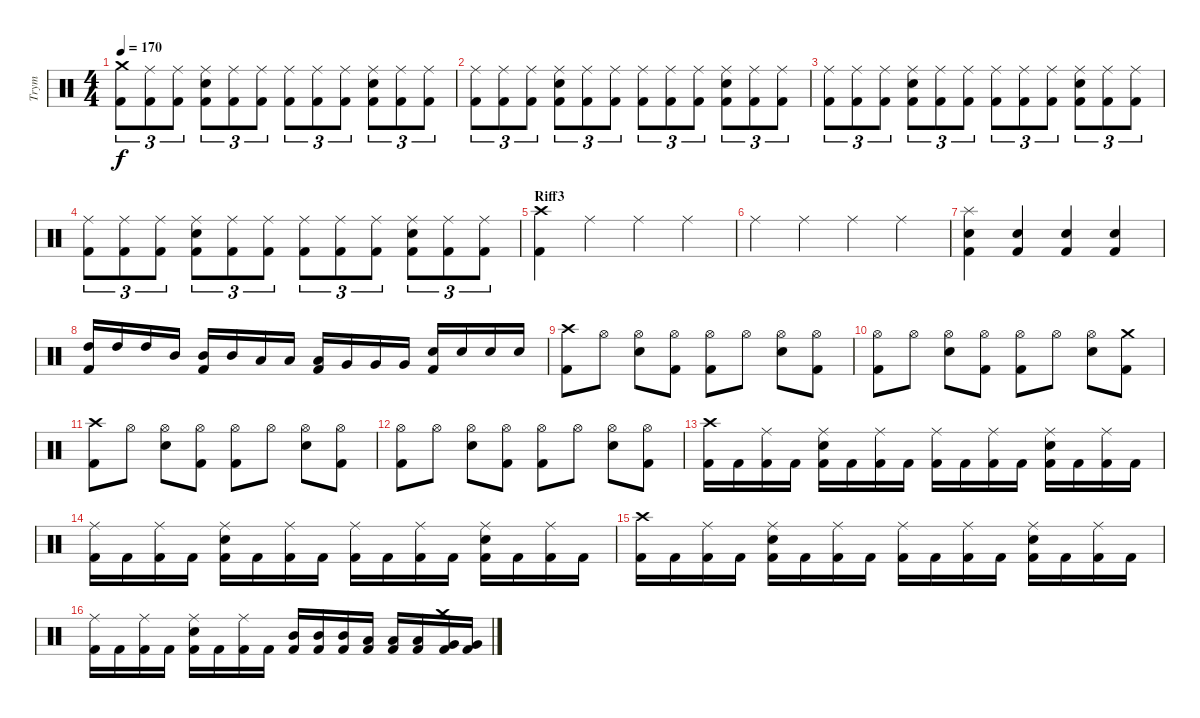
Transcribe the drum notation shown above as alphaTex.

\track ("Trym" "Trym") {instrument percussion}
\staff {score}
\articulation defaults
\ts (4 4)
\tempo 170
\clef neutral
\ks c
("Kick (hit) 2" "Crash medium (hit)").8{tu (3 2) dy f} ("Kick (hit) 2" "Ride (middle)").8{tu (3 2)} ("Kick (hit) 2" "Ride (middle)").8{tu (3 2)} ("Kick (hit) 2" "Electric Snare (hit)" "Ride (middle)").8{tu (3 2)} ("Kick (hit) 2" "Ride (middle)").8{tu (3 2)} ("Kick (hit) 2" "Ride (middle)").8{tu (3 2)} ("Kick (hit) 2" "Ride (middle)").8{tu (3 2)} ("Kick (hit) 2" "Ride (middle)").8{tu (3 2)} ("Kick (hit) 2" "Ride (middle)").8{tu (3 2)} ("Kick (hit) 2" "Electric Snare (hit)" "Ride (middle)").8{tu (3 2)} ("Kick (hit) 2" "Ride (middle)").8{tu (3 2)} ("Kick (hit) 2" "Ride (middle)").8{tu (3 2)} |
("Kick (hit) 2" "Ride (middle)").8{tu (3 2)} ("Kick (hit) 2" "Ride (middle)").8{tu (3 2)} ("Kick (hit) 2" "Ride (middle)").8{tu (3 2)} ("Kick (hit) 2" "Electric Snare (hit)" "Ride (middle)").8{tu (3 2)} ("Kick (hit) 2" "Ride (middle)").8{tu (3 2)} ("Kick (hit) 2" "Ride (middle)").8{tu (3 2)} ("Kick (hit) 2" "Ride (middle)").8{tu (3 2)} ("Kick (hit) 2" "Ride (middle)").8{tu (3 2)} ("Kick (hit) 2" "Ride (middle)").8{tu (3 2)} ("Kick (hit) 2" "Electric Snare (hit)" "Ride (middle)").8{tu (3 2)} ("Kick (hit) 2" "Ride (middle)").8{tu (3 2)} ("Kick (hit) 2" "Ride (middle)").8{tu (3 2)} |
("Kick (hit) 2" "Ride (middle)").8{tu (3 2)} ("Kick (hit) 2" "Ride (middle)").8{tu (3 2)} ("Kick (hit) 2" "Ride (middle)").8{tu (3 2)} ("Kick (hit) 2" "Electric Snare (hit)" "Ride (middle)").8{tu (3 2)} ("Kick (hit) 2" "Ride (middle)").8{tu (3 2)} ("Kick (hit) 2" "Ride (middle)").8{tu (3 2)} ("Kick (hit) 2" "Ride (middle)").8{tu (3 2)} ("Kick (hit) 2" "Ride (middle)").8{tu (3 2)} ("Kick (hit) 2" "Ride (middle)").8{tu (3 2)} ("Kick (hit) 2" "Electric Snare (hit)" "Ride (middle)").8{tu (3 2)} ("Kick (hit) 2" "Ride (middle)").8{tu (3 2)} ("Kick (hit) 2" "Ride (middle)").8{tu (3 2)} |
("Kick (hit) 2" "Ride (middle)").8{tu (3 2)} ("Kick (hit) 2" "Ride (middle)").8{tu (3 2)} ("Kick (hit) 2" "Ride (middle)").8{tu (3 2)} ("Kick (hit) 2" "Electric Snare (hit)" "Ride (middle)").8{tu (3 2)} ("Kick (hit) 2" "Ride (middle)").8{tu (3 2)} ("Kick (hit) 2" "Ride (middle)").8{tu (3 2)} ("Kick (hit) 2" "Ride (middle)").8{tu (3 2)} ("Kick (hit) 2" "Ride (middle)").8{tu (3 2)} ("Kick (hit) 2" "Ride (middle)").8{tu (3 2)} ("Kick (hit) 2" "Electric Snare (hit)" "Ride (middle)").8{tu (3 2)} ("Kick (hit) 2" "Ride (middle)").8{tu (3 2)} ("Kick (hit) 2" "Ride (middle)").8{tu (3 2)} |
\section ("" "Riff3")
("Kick (hit) 2" "Crash high (hit)").4 "Ride (middle)".4 "Ride (middle)".4 "Ride (middle)".4 |
"Ride (middle)".4 "Ride (middle)".4 "Ride (middle)".4 "Ride (middle)".4 |
("Kick (hit) 2" "Electric Snare (hit)" "Splash (hit)").4 ("Kick (hit) 2" "Electric Snare (hit)").4 ("Kick (hit) 2" "Electric Snare (hit)").4 ("Kick (hit) 2" "Electric Snare (hit)").4 |
("Kick (hit) 2" "High Tom (hit)").16 "High Tom (hit)".16 "High Tom (hit)".16 "Mid Tom (hit)".16 ("Kick (hit) 2" "Mid Tom (hit)").16 "Mid Tom (hit)".16 "Low Tom (hit)".16 "Low Tom (hit)".16 ("Kick (hit) 2" "Low Tom (hit)").16 "Very Low Tom (hit)".16 "Very Low Tom (hit)".16 "Very Low Tom (hit)".16 ("Kick (hit) 2" "Electric Snare (hit)").16 "Electric Snare (hit)".16 "Electric Snare (hit)".16 "Electric Snare (hit)".16 |
("Kick (hit) 2" "Crash high (hit)").8 "Hi-Hat (open)".8 ("Electric Snare (hit)" "Hi-Hat (open)").8 ("Kick (hit) 2" "Hi-Hat (open)").8 ("Kick (hit) 2" "Hi-Hat (open)").8 "Hi-Hat (open)".8 ("Electric Snare (hit)" "Hi-Hat (open)").8 ("Kick (hit) 2" "Hi-Hat (open)").8 |
("Kick (hit) 2" "Hi-Hat (open)").8 "Hi-Hat (open)".8 ("Electric Snare (hit)" "Hi-Hat (open)").8 ("Kick (hit) 2" "Hi-Hat (open)").8 ("Kick (hit) 2" "Hi-Hat (open)").8 "Hi-Hat (open)".8 ("Electric Snare (hit)" "Hi-Hat (open)").8 ("Kick (hit) 2" "Crash medium (hit)").8 |
("Kick (hit) 2" "Crash high (hit)").8 "Hi-Hat (open)".8 ("Electric Snare (hit)" "Hi-Hat (open)").8 ("Kick (hit) 2" "Hi-Hat (open)").8 ("Kick (hit) 2" "Hi-Hat (open)").8 "Hi-Hat (open)".8 ("Electric Snare (hit)" "Hi-Hat (open)").8 ("Kick (hit) 2" "Hi-Hat (open)").8 |
("Kick (hit) 2" "Hi-Hat (open)").8 "Hi-Hat (open)".8 ("Electric Snare (hit)" "Hi-Hat (open)").8 ("Kick (hit) 2" "Hi-Hat (open)").8 ("Kick (hit) 2" "Hi-Hat (open)").8 "Hi-Hat (open)".8 ("Electric Snare (hit)" "Hi-Hat (open)").8 ("Kick (hit) 2" "Hi-Hat (open)").8 |
("Kick (hit) 2" "Crash high (hit)").16 "Kick (hit) 2".16 ("Kick (hit) 2" "Ride (middle)").16 "Kick (hit) 2".16 ("Kick (hit) 2" "Electric Snare (hit)" "Ride (middle)").16 "Kick (hit) 2".16 ("Kick (hit) 2" "Ride (middle)").16 "Kick (hit) 2".16 ("Kick (hit) 2" "Ride (middle)").16 "Kick (hit) 2".16 ("Kick (hit) 2" "Ride (middle)").16 "Kick (hit) 2".16 ("Kick (hit) 2" "Electric Snare (hit)" "Ride (middle)").16 "Kick (hit) 2".16 ("Kick (hit) 2" "Ride (middle)").16 "Kick (hit) 2".16 |
("Kick (hit) 2" "Ride (middle)").16 "Kick (hit) 2".16 ("Kick (hit) 2" "Ride (middle)").16 "Kick (hit) 2".16 ("Kick (hit) 2" "Electric Snare (hit)" "Ride (middle)").16 "Kick (hit) 2".16 ("Kick (hit) 2" "Ride (middle)").16 "Kick (hit) 2".16 ("Kick (hit) 2" "Ride (middle)").16 "Kick (hit) 2".16 ("Kick (hit) 2" "Ride (middle)").16 "Kick (hit) 2".16 ("Kick (hit) 2" "Electric Snare (hit)" "Ride (middle)").16 "Kick (hit) 2".16 ("Kick (hit) 2" "Ride (middle)").16 "Kick (hit) 2".16 |
("Kick (hit) 2" "Crash high (hit)").16 "Kick (hit) 2".16 ("Kick (hit) 2" "Ride (middle)").16 "Kick (hit) 2".16 ("Kick (hit) 2" "Electric Snare (hit)" "Ride (middle)").16 "Kick (hit) 2".16 ("Kick (hit) 2" "Ride (middle)").16 "Kick (hit) 2".16 ("Kick (hit) 2" "Ride (middle)").16 "Kick (hit) 2".16 ("Kick (hit) 2" "Ride (middle)").16 "Kick (hit) 2".16 ("Kick (hit) 2" "Electric Snare (hit)" "Ride (middle)").16 "Kick (hit) 2".16 ("Kick (hit) 2" "Ride (middle)").16 "Kick (hit) 2".16 |
("Kick (hit) 2" "Ride (middle)").16 "Kick (hit) 2".16 ("Kick (hit) 2" "Ride (middle)").16 "Kick (hit) 2".16 ("Kick (hit) 2" "Electric Snare (hit)" "Ride (middle)").16 "Kick (hit) 2".16 ("Kick (hit) 2" "Ride (middle)").16 "Kick (hit) 2".16 ("Kick (hit) 2" "Mid Tom (hit)").16 ("Kick (hit) 2" "Mid Tom (hit)").16 ("Kick (hit) 2" "Mid Tom (hit)").16 ("Kick (hit) 2" "Low Tom (hit)").16 ("Kick (hit) 2" "Low Tom (hit)").16 ("Kick (hit) 2" "Low Tom (hit)").16 ("Kick (hit) 2" "Crash medium (hit)" "Very Low Tom (hit)").16 ("Kick (hit) 2" "Very Low Tom (hit)").16
